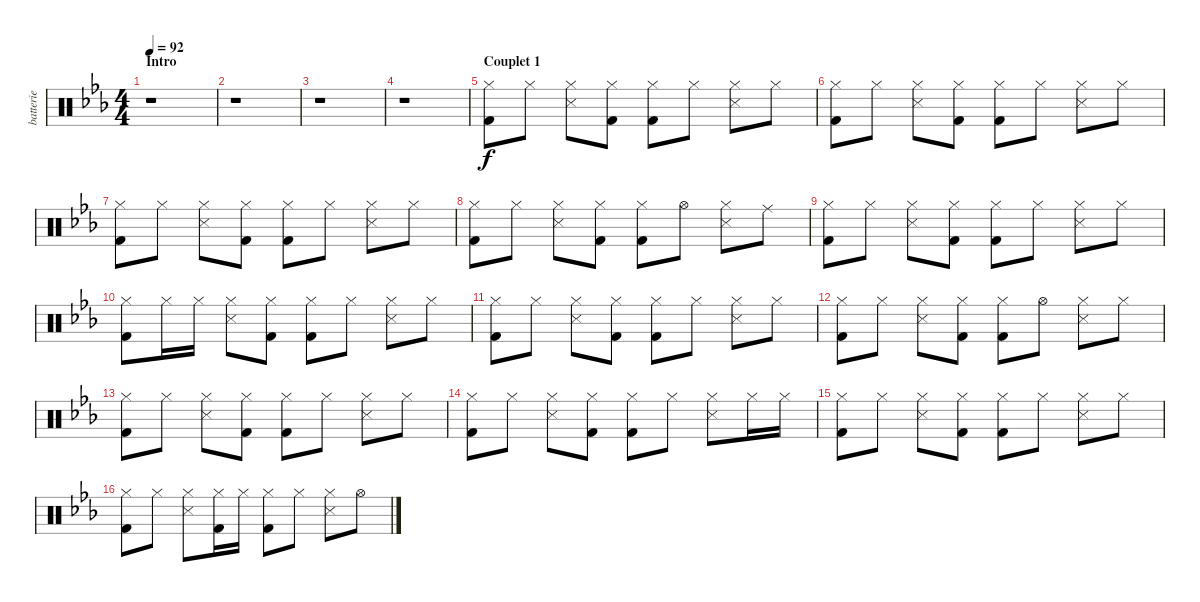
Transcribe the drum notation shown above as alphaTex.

\track ("batterie" "batterie") {instrument percussion}
\staff {score}
\articulation defaults
\ts (4 4)
\section ("" "Intro")
\tempo 92
\clef neutral
\ks eb
r.1{dy f} |
r.1 |
r.1 |
r.1 |
\section ("" "Couplet 1")
("Kick (hit) 2" "Hi-Hat (closed)").8 "Hi-Hat (closed)".8 ("Snare (side stick) 3" "Hi-Hat (closed)").8 ("Kick (hit) 2" "Hi-Hat (closed)").8 ("Kick (hit) 2" "Hi-Hat (closed)").8 "Hi-Hat (closed)".8 ("Snare (side stick) 3" "Hi-Hat (closed)").8 "Hi-Hat (closed)".8 |
("Kick (hit) 2" "Hi-Hat (closed)").8 "Hi-Hat (closed)".8 ("Snare (side stick) 3" "Hi-Hat (closed)").8 ("Kick (hit) 2" "Hi-Hat (closed)").8 ("Kick (hit) 2" "Hi-Hat (closed)").8 "Hi-Hat (closed)".8 ("Snare (side stick) 3" "Hi-Hat (closed)").8 "Hi-Hat (closed)".8 |
("Kick (hit) 2" "Hi-Hat (closed)").8 "Hi-Hat (closed)".8 ("Snare (side stick) 3" "Hi-Hat (closed)").8 ("Kick (hit) 2" "Hi-Hat (closed)").8 ("Kick (hit) 2" "Hi-Hat (closed)").8 "Hi-Hat (closed)".8 ("Snare (side stick) 3" "Hi-Hat (closed)").8 "Hi-Hat (closed)".8 |
("Kick (hit) 2" "Hi-Hat (closed)").8 "Hi-Hat (closed)".8 ("Snare (side stick) 3" "Hi-Hat (closed)").8 ("Kick (hit) 2" "Hi-Hat (closed)").8 ("Kick (hit) 2" "Hi-Hat (closed)").8 "Hi-Hat (open)".8 ("Snare (side stick) 3" "Hi-Hat (closed)").8 "Ride (middle)".8 |
("Kick (hit) 2" "Hi-Hat (closed)").8 "Hi-Hat (closed)".8 ("Snare (side stick) 3" "Hi-Hat (closed)").8 ("Kick (hit) 2" "Hi-Hat (closed)").8 ("Kick (hit) 2" "Hi-Hat (closed)").8 "Hi-Hat (closed)".8 ("Snare (side stick) 3" "Hi-Hat (closed)").8 "Hi-Hat (closed)".8 |
("Hi-Hat (closed)" "Kick (hit) 2").8 "Hi-Hat (closed)".16 "Hi-Hat (closed)".16 ("Hi-Hat (closed)" "Snare (side stick) 3").8 ("Hi-Hat (closed)" "Kick (hit) 2").8 ("Hi-Hat (closed)" "Kick (hit) 2").8 "Hi-Hat (closed)".8 ("Hi-Hat (closed)" "Snare (side stick) 3").8 "Hi-Hat (closed)".8 |
("Kick (hit) 2" "Hi-Hat (closed)").8 "Hi-Hat (closed)".8 ("Snare (side stick) 3" "Hi-Hat (closed)").8 ("Kick (hit) 2" "Hi-Hat (closed)").8 ("Kick (hit) 2" "Hi-Hat (closed)").8 "Hi-Hat (closed)".8 ("Snare (side stick) 3" "Hi-Hat (closed)").8 "Hi-Hat (closed)".8 |
("Kick (hit) 2" "Hi-Hat (closed)").8 "Hi-Hat (closed)".8 ("Snare (side stick) 3" "Hi-Hat (closed)").8 ("Kick (hit) 2" "Hi-Hat (closed)").8 ("Kick (hit) 2" "Hi-Hat (closed)").8 "Hi-Hat (open)".8 ("Snare (side stick) 3" "Hi-Hat (closed)").8 "Hi-Hat (closed)".8 |
("Kick (hit) 2" "Hi-Hat (closed)").8 "Hi-Hat (closed)".8 ("Snare (side stick) 3" "Hi-Hat (closed)").8 ("Kick (hit) 2" "Hi-Hat (closed)").8 ("Kick (hit) 2" "Hi-Hat (closed)").8 "Hi-Hat (closed)".8 ("Snare (side stick) 3" "Hi-Hat (closed)").8 "Hi-Hat (closed)".8 |
("Kick (hit) 2" "Hi-Hat (closed)").8 "Hi-Hat (closed)".8 ("Snare (side stick) 3" "Hi-Hat (closed)").8 ("Kick (hit) 2" "Hi-Hat (closed)").8 ("Kick (hit) 2" "Hi-Hat (closed)").8 "Hi-Hat (closed)".8 ("Snare (side stick) 3" "Hi-Hat (closed)").8 "Hi-Hat (closed)".16 "Hi-Hat (closed)".16 |
("Kick (hit) 2" "Hi-Hat (closed)").8 "Hi-Hat (closed)".8 ("Snare (side stick) 3" "Hi-Hat (closed)").8 ("Kick (hit) 2" "Hi-Hat (closed)").8 ("Kick (hit) 2" "Hi-Hat (closed)").8 "Hi-Hat (closed)".8 ("Snare (side stick) 3" "Hi-Hat (closed)").8 "Hi-Hat (closed)".8 |
("Kick (hit) 2" "Hi-Hat (closed)").8 "Hi-Hat (closed)".8 ("Snare (side stick) 3" "Hi-Hat (closed)").8 ("Kick (hit) 2" "Hi-Hat (closed)").16 "Hi-Hat (closed)".16 ("Kick (hit) 2" "Hi-Hat (closed)").8 "Hi-Hat (closed)".8 ("Snare (side stick) 3" "Hi-Hat (closed)").8 "Hi-Hat (open)".8
